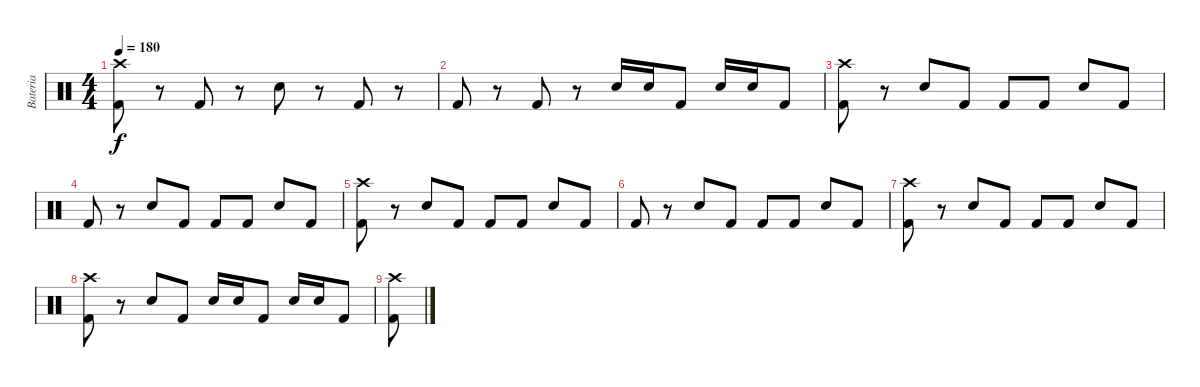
\track ("Bateria" "Bateria") {instrument percussion}
\staff {score}
\articulation defaults
\ts (4 4)
\tempo 180
\clef neutral
\ks c
("Kick (hit) 2" "Crash high (hit)").8{dy f} r.8 "Kick (hit) 2".8 r.8 "Electric Snare (hit)".8 r.8 "Kick (hit) 2".8 r.8 |
"Kick (hit) 2".8 r.8 "Kick (hit) 2".8 r.8 "Electric Snare (hit)".16 "Electric Snare (hit)".16 "Kick (hit) 2".8 "Electric Snare (hit)".16 "Electric Snare (hit)".16 "Kick (hit) 2".8 |
("Kick (hit) 2" "Crash high (hit)").8 r.8 "Electric Snare (hit)".8 "Kick (hit) 2".8 "Kick (hit) 2".8 "Kick (hit) 2".8 "Electric Snare (hit)".8 "Kick (hit) 2".8 |
"Kick (hit) 2".8 r.8 "Electric Snare (hit)".8 "Kick (hit) 2".8 "Kick (hit) 2".8 "Kick (hit) 2".8 "Electric Snare (hit)".8 "Kick (hit) 2".8 |
("Kick (hit) 2" "Crash high (hit)").8 r.8 "Electric Snare (hit)".8 "Kick (hit) 2".8 "Kick (hit) 2".8 "Kick (hit) 2".8 "Electric Snare (hit)".8 "Kick (hit) 2".8 |
"Kick (hit) 2".8 r.8 "Electric Snare (hit)".8 "Kick (hit) 2".8 "Kick (hit) 2".8 "Kick (hit) 2".8 "Electric Snare (hit)".8 "Kick (hit) 2".8 |
("Kick (hit) 2" "Crash high (hit)").8 r.8 "Electric Snare (hit)".8 "Kick (hit) 2".8 "Kick (hit) 2".8 "Kick (hit) 2".8 "Electric Snare (hit)".8 "Kick (hit) 2".8 |
("Kick (hit) 2" "Crash high (hit)").8 r.8 "Electric Snare (hit)".8 "Kick (hit) 2".8 "Electric Snare (hit)".16 "Electric Snare (hit)".16 "Kick (hit) 2".8 "Electric Snare (hit)".16 "Electric Snare (hit)".16 "Kick (hit) 2".8 |
("Kick (hit) 2" "Crash high (hit)").8
